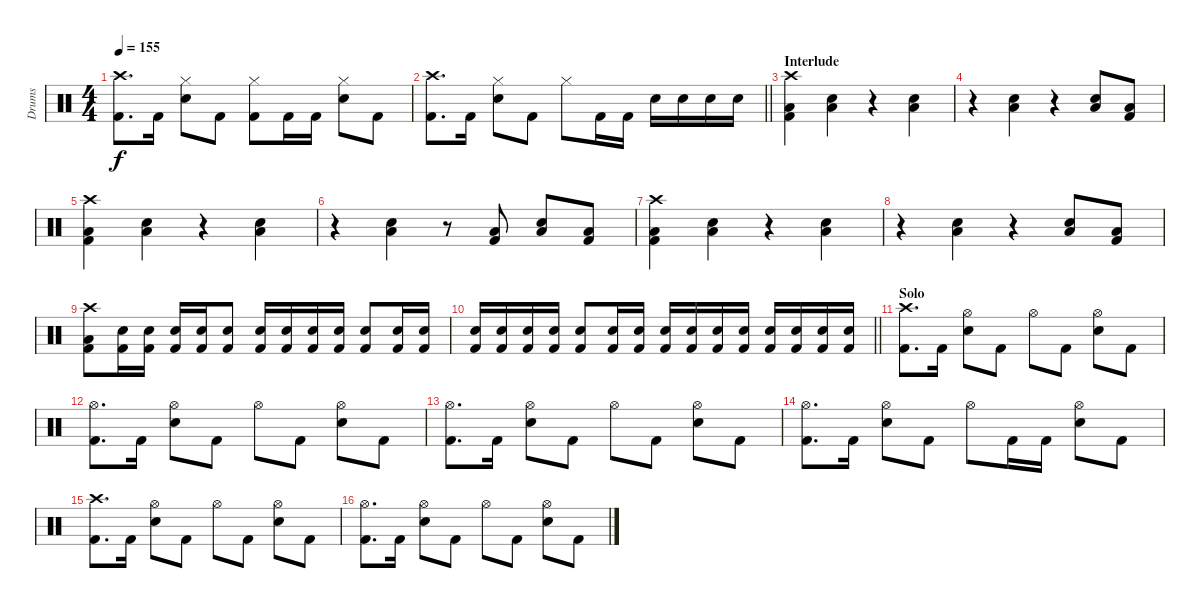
\track ("Drums" "Drums") {instrument percussion}
\staff {score}
\articulation defaults
\ts (4 4)
\tempo 155
\clef neutral
\ks c
("Crash high (hit)" "Kick (hit) 2").8{d dy f} "Kick (hit) 2".16 ("Hi-Hat (closed)" "Snare (hit) 2").8 "Kick (hit) 2".8 ("Hi-Hat (closed)" "Kick (hit) 2").8 "Kick (hit) 2".16 "Kick (hit) 2".16 ("Hi-Hat (closed)" "Snare (hit) 2").8 "Kick (hit) 2".8 |
\barLineRight lightlight
("Crash high (hit)" "Kick (hit) 2").8{d} "Kick (hit) 2".16 ("Hi-Hat (closed)" "Snare (hit) 2").8 "Kick (hit) 2".8 "Hi-Hat (closed)".8 "Kick (hit) 2".16 "Kick (hit) 2".16 "Snare (hit) 2".16 "Snare (hit) 2".16 "Snare (hit) 2".16 "Snare (hit) 2".16 |
\section ("" "Interlude")
("Crash high (hit)" "Low Tom (hit)" "Kick (hit) 2").4 ("Snare (hit) 2" "Low Tom (hit)").4 r.4 ("Snare (hit) 2" "Low Tom (hit)").4 |
r.4 ("Snare (hit) 2" "Low Tom (hit)").4 r.4 ("Snare (hit) 2" "Low Tom (hit)").8 ("Low Tom (hit)" "Kick (hit) 2").8 |
("Crash high (hit)" "Low Tom (hit)" "Kick (hit) 2").4 ("Snare (hit) 2" "Low Tom (hit)").4 r.4 ("Snare (hit) 2" "Low Tom (hit)").4 |
r.4 ("Snare (hit) 2" "Low Tom (hit)").4 r.8 ("Low Tom (hit)" "Kick (hit) 2").8 ("Snare (hit) 2" "Low Tom (hit)").8 ("Low Tom (hit)" "Kick (hit) 2").8 |
("Crash high (hit)" "Low Tom (hit)" "Kick (hit) 2").4 ("Snare (hit) 2" "Low Tom (hit)").4 r.4 ("Snare (hit) 2" "Low Tom (hit)").4 |
r.4 ("Snare (hit) 2" "Low Tom (hit)").4 r.4 ("Snare (hit) 2" "Low Tom (hit)").8 ("Low Tom (hit)" "Kick (hit) 2").8 |
("Crash high (hit)" "Low Tom (hit)" "Kick (hit) 2").8 ("Snare (hit) 2" "Kick (hit) 2").16 ("Snare (hit) 2" "Kick (hit) 2").16 ("Snare (hit) 2" "Kick (hit) 2").16 ("Snare (hit) 2" "Kick (hit) 2").16 ("Snare (hit) 2" "Kick (hit) 2").8 ("Snare (hit) 2" "Kick (hit) 2").16 ("Snare (hit) 2" "Kick (hit) 2").16 ("Snare (hit) 2" "Kick (hit) 2").16 ("Snare (hit) 2" "Kick (hit) 2").16 ("Snare (hit) 2" "Kick (hit) 2").8 ("Snare (hit) 2" "Kick (hit) 2").16 ("Snare (hit) 2" "Kick (hit) 2").16 |
\barLineRight lightlight
("Snare (hit) 2" "Kick (hit) 2").16 ("Snare (hit) 2" "Kick (hit) 2").16 ("Snare (hit) 2" "Kick (hit) 2").16 ("Snare (hit) 2" "Kick (hit) 2").16 ("Snare (hit) 2" "Kick (hit) 2").8 ("Snare (hit) 2" "Kick (hit) 2").16 ("Snare (hit) 2" "Kick (hit) 2").16 ("Snare (hit) 2" "Kick (hit) 2").16 ("Snare (hit) 2" "Kick (hit) 2").16 ("Snare (hit) 2" "Kick (hit) 2").16 ("Snare (hit) 2" "Kick (hit) 2").16 ("Snare (hit) 2" "Kick (hit) 2").16 ("Snare (hit) 2" "Kick (hit) 2").16 ("Snare (hit) 2" "Kick (hit) 2").16 ("Snare (hit) 2" "Kick (hit) 2").16 |
\section ("" "Solo")
("Crash high (hit)" "Kick (hit) 2").8{d} "Kick (hit) 2".16 ("Hi-Hat (open)" "Snare (hit) 2").8 "Kick (hit) 2".8 "Hi-Hat (open)".8 "Kick (hit) 2".8 ("Hi-Hat (open)" "Snare (hit) 2").8 "Kick (hit) 2".8 |
("Hi-Hat (open)" "Kick (hit) 2").8{d} "Kick (hit) 2".16 ("Hi-Hat (open)" "Snare (hit) 2").8 "Kick (hit) 2".8 "Hi-Hat (open)".8 "Kick (hit) 2".8 ("Hi-Hat (open)" "Snare (hit) 2").8 "Kick (hit) 2".8 |
("Hi-Hat (open)" "Kick (hit) 2").8{d} "Kick (hit) 2".16 ("Hi-Hat (open)" "Snare (hit) 2").8 "Kick (hit) 2".8 "Hi-Hat (open)".8 "Kick (hit) 2".8 ("Hi-Hat (open)" "Snare (hit) 2").8 "Kick (hit) 2".8 |
("Hi-Hat (open)" "Kick (hit) 2").8{d} "Kick (hit) 2".16 ("Hi-Hat (open)" "Snare (hit) 2").8 "Kick (hit) 2".8 "Hi-Hat (open)".8 "Kick (hit) 2".16 "Kick (hit) 2".16 ("Hi-Hat (open)" "Snare (hit) 2").8 "Kick (hit) 2".8 |
("Crash high (hit)" "Kick (hit) 2").8{d} "Kick (hit) 2".16 ("Hi-Hat (open)" "Snare (hit) 2").8 "Kick (hit) 2".8 "Hi-Hat (open)".8 "Kick (hit) 2".8 ("Hi-Hat (open)" "Snare (hit) 2").8 "Kick (hit) 2".8 |
("Hi-Hat (open)" "Kick (hit) 2").8{d} "Kick (hit) 2".16 ("Hi-Hat (open)" "Snare (hit) 2").8 "Kick (hit) 2".8 "Hi-Hat (open)".8 "Kick (hit) 2".8 ("Hi-Hat (open)" "Snare (hit) 2").8 "Kick (hit) 2".8
